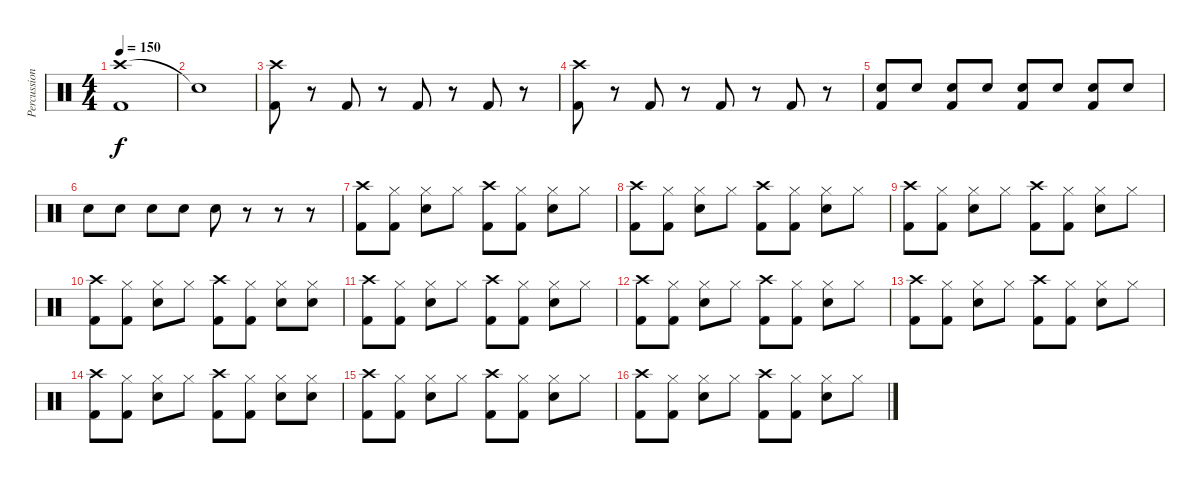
\track ("Percussion" "Percussion") {instrument percussion}
\staff {score}
\articulation defaults
\ts (4 4)
\tempo 150
\clef neutral
\ks c
("Crash high (hit)" "Kick (hit) 2").1{dy f} |
"Snare (hit)"{t}.1 |
("Crash high (hit)" "Kick (hit) 2").8 r.8 "Kick (hit) 2".8 r.8 "Kick (hit) 2".8 r.8 "Kick (hit) 2".8 r.8 |
("Crash high (hit)" "Kick (hit) 2").8 r.8 "Kick (hit) 2".8 r.8 "Kick (hit) 2".8 r.8 "Kick (hit) 2".8 r.8 |
("Electric Snare (hit)" "Kick (hit) 2").8 "Electric Snare (hit)".8 ("Electric Snare (hit)" "Kick (hit) 2").8 "Electric Snare (hit)".8 ("Electric Snare (hit)" "Kick (hit) 2").8 "Electric Snare (hit)".8 ("Electric Snare (hit)" "Kick (hit) 2").8 "Electric Snare (hit)".8 |
"Electric Snare (hit)".8 "Electric Snare (hit)".8 "Electric Snare (hit)".8 "Electric Snare (hit)".8 "Electric Snare (hit)".8 r.8 r.8 r.8 |
("Crash high (hit)" "Kick (hit) 2").8 ("Hi-Hat (closed)" "Kick (hit) 2").8 ("Hi-Hat (closed)" "Electric Snare (hit)").8 "Hi-Hat (closed)".8 ("Crash high (hit)" "Kick (hit) 2").8 ("Hi-Hat (closed)" "Kick (hit) 2").8 ("Hi-Hat (closed)" "Electric Snare (hit)").8 "Hi-Hat (closed)".8 |
("Crash high (hit)" "Kick (hit) 2").8 ("Hi-Hat (closed)" "Kick (hit) 2").8 ("Hi-Hat (closed)" "Electric Snare (hit)").8 "Hi-Hat (closed)".8 ("Crash high (hit)" "Kick (hit) 2").8 ("Hi-Hat (closed)" "Kick (hit) 2").8 ("Hi-Hat (closed)" "Electric Snare (hit)").8 "Hi-Hat (closed)".8 |
("Crash high (hit)" "Kick (hit) 2").8 ("Hi-Hat (closed)" "Kick (hit) 2").8 ("Hi-Hat (closed)" "Electric Snare (hit)").8 "Hi-Hat (closed)".8 ("Crash high (hit)" "Kick (hit) 2").8 ("Hi-Hat (closed)" "Kick (hit) 2").8 ("Hi-Hat (closed)" "Electric Snare (hit)").8 "Hi-Hat (closed)".8 |
("Crash high (hit)" "Kick (hit) 2").8 ("Hi-Hat (closed)" "Kick (hit) 2").8 ("Hi-Hat (closed)" "Electric Snare (hit)").8 "Hi-Hat (closed)".8 ("Crash high (hit)" "Kick (hit) 2").8 ("Hi-Hat (closed)" "Kick (hit) 2").8 ("Hi-Hat (closed)" "Electric Snare (hit)").8 ("Hi-Hat (closed)" "Electric Snare (hit)").8 |
("Crash high (hit)" "Kick (hit) 2").8 ("Hi-Hat (closed)" "Kick (hit) 2").8 ("Hi-Hat (closed)" "Electric Snare (hit)").8 "Hi-Hat (closed)".8 ("Crash high (hit)" "Kick (hit) 2").8 ("Hi-Hat (closed)" "Kick (hit) 2").8 ("Hi-Hat (closed)" "Electric Snare (hit)").8 "Hi-Hat (closed)".8 |
("Crash high (hit)" "Kick (hit) 2").8 ("Hi-Hat (closed)" "Kick (hit) 2").8 ("Hi-Hat (closed)" "Electric Snare (hit)").8 "Hi-Hat (closed)".8 ("Crash high (hit)" "Kick (hit) 2").8 ("Hi-Hat (closed)" "Kick (hit) 2").8 ("Hi-Hat (closed)" "Electric Snare (hit)").8 "Hi-Hat (closed)".8 |
("Crash high (hit)" "Kick (hit) 2").8 ("Hi-Hat (closed)" "Kick (hit) 2").8 ("Hi-Hat (closed)" "Electric Snare (hit)").8 "Hi-Hat (closed)".8 ("Crash high (hit)" "Kick (hit) 2").8 ("Hi-Hat (closed)" "Kick (hit) 2").8 ("Hi-Hat (closed)" "Electric Snare (hit)").8 "Hi-Hat (closed)".8 |
("Crash high (hit)" "Kick (hit) 2").8 ("Hi-Hat (closed)" "Kick (hit) 2").8 ("Hi-Hat (closed)" "Electric Snare (hit)").8 "Hi-Hat (closed)".8 ("Crash high (hit)" "Kick (hit) 2").8 ("Hi-Hat (closed)" "Kick (hit) 2").8 ("Hi-Hat (closed)" "Electric Snare (hit)").8 ("Hi-Hat (closed)" "Electric Snare (hit)").8 |
("Crash high (hit)" "Kick (hit) 2").8 ("Hi-Hat (closed)" "Kick (hit) 2").8 ("Hi-Hat (closed)" "Electric Snare (hit)").8 "Hi-Hat (closed)".8 ("Crash high (hit)" "Kick (hit) 2").8 ("Hi-Hat (closed)" "Kick (hit) 2").8 ("Hi-Hat (closed)" "Electric Snare (hit)").8 "Hi-Hat (closed)".8 |
("Crash high (hit)" "Kick (hit) 2").8 ("Hi-Hat (closed)" "Kick (hit) 2").8 ("Hi-Hat (closed)" "Electric Snare (hit)").8 "Hi-Hat (closed)".8 ("Crash high (hit)" "Kick (hit) 2").8 ("Hi-Hat (closed)" "Kick (hit) 2").8 ("Hi-Hat (closed)" "Electric Snare (hit)").8 "Hi-Hat (closed)".8
